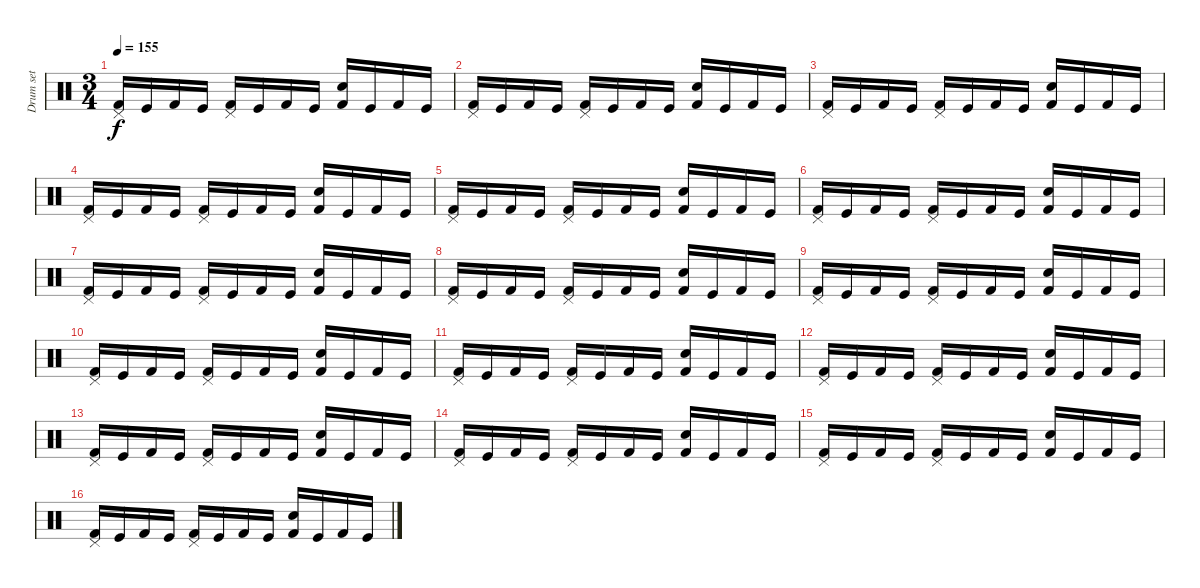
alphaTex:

\track ("Drum set" "Drum set") {instrument percussion}
\staff {score}
\articulation defaults
\ts (3 4)
\tempo 155
\clef neutral
\ks c
("Pedal Hi-Hat (hit)" "Kick (hit) 2").16{dy f} "Kick (hit)".16 "Kick (hit) 2".16 "Kick (hit)".16 ("Pedal Hi-Hat (hit)" "Kick (hit) 2").16 "Kick (hit)".16 "Kick (hit) 2".16 "Kick (hit)".16 ("Snare (hit) 2" "Kick (hit) 2").16 "Kick (hit)".16 "Kick (hit) 2".16 "Kick (hit)".16 |
("Pedal Hi-Hat (hit)" "Kick (hit) 2").16 "Kick (hit)".16 "Kick (hit) 2".16 "Kick (hit)".16 ("Pedal Hi-Hat (hit)" "Kick (hit) 2").16 "Kick (hit)".16 "Kick (hit) 2".16 "Kick (hit)".16 ("Snare (hit) 2" "Kick (hit) 2").16 "Kick (hit)".16 "Kick (hit) 2".16 "Kick (hit)".16 |
("Pedal Hi-Hat (hit)" "Kick (hit) 2").16 "Kick (hit)".16 "Kick (hit) 2".16 "Kick (hit)".16 ("Pedal Hi-Hat (hit)" "Kick (hit) 2").16 "Kick (hit)".16 "Kick (hit) 2".16 "Kick (hit)".16 ("Snare (hit) 2" "Kick (hit) 2").16 "Kick (hit)".16 "Kick (hit) 2".16 "Kick (hit)".16 |
("Pedal Hi-Hat (hit)" "Kick (hit) 2").16 "Kick (hit)".16 "Kick (hit) 2".16 "Kick (hit)".16 ("Pedal Hi-Hat (hit)" "Kick (hit) 2").16 "Kick (hit)".16 "Kick (hit) 2".16 "Kick (hit)".16 ("Snare (hit) 2" "Kick (hit) 2").16 "Kick (hit)".16 "Kick (hit) 2".16 "Kick (hit)".16 |
("Pedal Hi-Hat (hit)" "Kick (hit) 2").16 "Kick (hit)".16 "Kick (hit) 2".16 "Kick (hit)".16 ("Pedal Hi-Hat (hit)" "Kick (hit) 2").16 "Kick (hit)".16 "Kick (hit) 2".16 "Kick (hit)".16 ("Snare (hit) 2" "Kick (hit) 2").16 "Kick (hit)".16 "Kick (hit) 2".16 "Kick (hit)".16 |
("Pedal Hi-Hat (hit)" "Kick (hit) 2").16 "Kick (hit)".16 "Kick (hit) 2".16 "Kick (hit)".16 ("Pedal Hi-Hat (hit)" "Kick (hit) 2").16 "Kick (hit)".16 "Kick (hit) 2".16 "Kick (hit)".16 ("Snare (hit) 2" "Kick (hit) 2").16 "Kick (hit)".16 "Kick (hit) 2".16 "Kick (hit)".16 |
("Pedal Hi-Hat (hit)" "Kick (hit) 2").16 "Kick (hit)".16 "Kick (hit) 2".16 "Kick (hit)".16 ("Pedal Hi-Hat (hit)" "Kick (hit) 2").16 "Kick (hit)".16 "Kick (hit) 2".16 "Kick (hit)".16 ("Snare (hit) 2" "Kick (hit) 2").16 "Kick (hit)".16 "Kick (hit) 2".16 "Kick (hit)".16 |
("Pedal Hi-Hat (hit)" "Kick (hit) 2").16 "Kick (hit)".16 "Kick (hit) 2".16 "Kick (hit)".16 ("Pedal Hi-Hat (hit)" "Kick (hit) 2").16 "Kick (hit)".16 "Kick (hit) 2".16 "Kick (hit)".16 ("Snare (hit) 2" "Kick (hit) 2").16 "Kick (hit)".16 "Kick (hit) 2".16 "Kick (hit)".16 |
("Pedal Hi-Hat (hit)" "Kick (hit) 2").16 "Kick (hit)".16 "Kick (hit) 2".16 "Kick (hit)".16 ("Pedal Hi-Hat (hit)" "Kick (hit) 2").16 "Kick (hit)".16 "Kick (hit) 2".16 "Kick (hit)".16 ("Snare (hit) 2" "Kick (hit) 2").16 "Kick (hit)".16 "Kick (hit) 2".16 "Kick (hit)".16 |
("Pedal Hi-Hat (hit)" "Kick (hit) 2").16 "Kick (hit)".16 "Kick (hit) 2".16 "Kick (hit)".16 ("Pedal Hi-Hat (hit)" "Kick (hit) 2").16 "Kick (hit)".16 "Kick (hit) 2".16 "Kick (hit)".16 ("Snare (hit) 2" "Kick (hit) 2").16 "Kick (hit)".16 "Kick (hit) 2".16 "Kick (hit)".16 |
("Pedal Hi-Hat (hit)" "Kick (hit) 2").16 "Kick (hit)".16 "Kick (hit) 2".16 "Kick (hit)".16 ("Pedal Hi-Hat (hit)" "Kick (hit) 2").16 "Kick (hit)".16 "Kick (hit) 2".16 "Kick (hit)".16 ("Snare (hit) 2" "Kick (hit) 2").16 "Kick (hit)".16 "Kick (hit) 2".16 "Kick (hit)".16 |
("Pedal Hi-Hat (hit)" "Kick (hit) 2").16 "Kick (hit)".16 "Kick (hit) 2".16 "Kick (hit)".16 ("Pedal Hi-Hat (hit)" "Kick (hit) 2").16 "Kick (hit)".16 "Kick (hit) 2".16 "Kick (hit)".16 ("Snare (hit) 2" "Kick (hit) 2").16 "Kick (hit)".16 "Kick (hit) 2".16 "Kick (hit)".16 |
("Pedal Hi-Hat (hit)" "Kick (hit) 2").16 "Kick (hit)".16 "Kick (hit) 2".16 "Kick (hit)".16 ("Pedal Hi-Hat (hit)" "Kick (hit) 2").16 "Kick (hit)".16 "Kick (hit) 2".16 "Kick (hit)".16 ("Snare (hit) 2" "Kick (hit) 2").16 "Kick (hit)".16 "Kick (hit) 2".16 "Kick (hit)".16 |
("Pedal Hi-Hat (hit)" "Kick (hit) 2").16 "Kick (hit)".16 "Kick (hit) 2".16 "Kick (hit)".16 ("Pedal Hi-Hat (hit)" "Kick (hit) 2").16 "Kick (hit)".16 "Kick (hit) 2".16 "Kick (hit)".16 ("Snare (hit) 2" "Kick (hit) 2").16 "Kick (hit)".16 "Kick (hit) 2".16 "Kick (hit)".16 |
("Pedal Hi-Hat (hit)" "Kick (hit) 2").16 "Kick (hit)".16 "Kick (hit) 2".16 "Kick (hit)".16 ("Pedal Hi-Hat (hit)" "Kick (hit) 2").16 "Kick (hit)".16 "Kick (hit) 2".16 "Kick (hit)".16 ("Snare (hit) 2" "Kick (hit) 2").16 "Kick (hit)".16 "Kick (hit) 2".16 "Kick (hit)".16 |
("Pedal Hi-Hat (hit)" "Kick (hit) 2").16 "Kick (hit)".16 "Kick (hit) 2".16 "Kick (hit)".16 ("Pedal Hi-Hat (hit)" "Kick (hit) 2").16 "Kick (hit)".16 "Kick (hit) 2".16 "Kick (hit)".16 ("Snare (hit) 2" "Kick (hit) 2").16 "Kick (hit)".16 "Kick (hit) 2".16 "Kick (hit)".16
